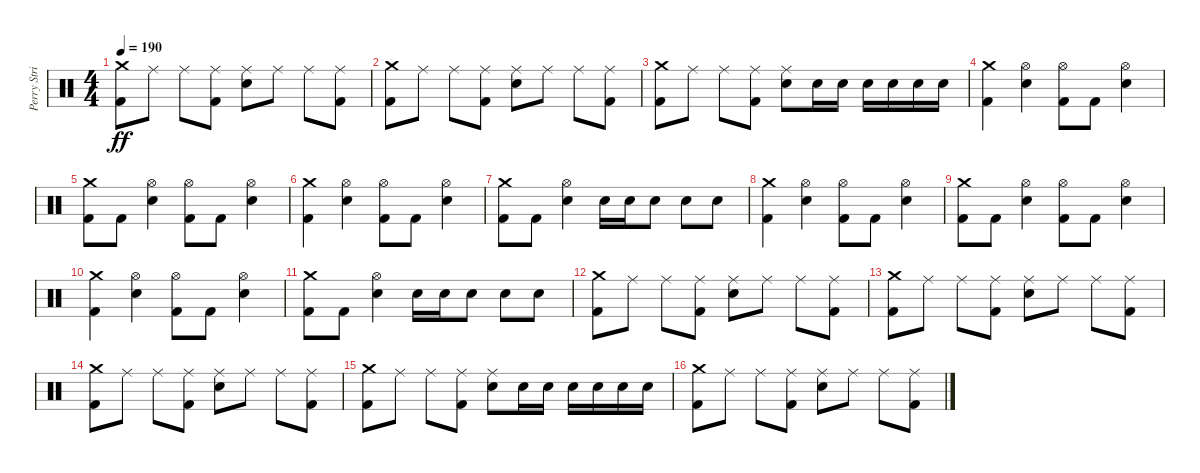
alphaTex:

\track ("Perry Strickland" "Perry Stri") {instrument percussion}
\staff {score}
\articulation defaults
\ts (4 4)
\tempo 190
\clef neutral
\ks c
("Crash medium (hit)" "Kick (hit) 2").8{dy ff} "Ride (middle)".8 "Ride (middle)".8 ("Ride (middle)" "Kick (hit) 2").8 ("Ride (middle)" "Snare (hit) 2").8 "Ride (middle)".8 "Ride (middle)".8 ("Ride (middle)" "Kick (hit) 2").8 |
("Crash medium (hit)" "Kick (hit) 2").8 "Ride (middle)".8 "Ride (middle)".8 ("Ride (middle)" "Kick (hit) 2").8 ("Ride (middle)" "Snare (hit) 2").8 "Ride (middle)".8 "Ride (middle)".8 ("Ride (middle)" "Kick (hit) 2").8 |
("Crash medium (hit)" "Kick (hit) 2").8 "Ride (middle)".8 "Ride (middle)".8 ("Ride (middle)" "Kick (hit) 2").8 ("Ride (middle)" "Snare (hit) 2").8 "Snare (hit) 2".16 "Snare (hit) 2".16 "Snare (hit) 2".16 "Snare (hit) 2".16 "Snare (hit) 2".16 "Snare (hit) 2".16 |
("Crash medium (hit)" "Kick (hit) 2").4 ("Hi-Hat (open)" "Snare (hit) 2").4 ("Hi-Hat (open)" "Kick (hit) 2").8 "Kick (hit) 2".8 ("Hi-Hat (open)" "Snare (hit) 2").4 |
("Crash medium (hit)" "Kick (hit) 2").8 "Kick (hit) 2".8 ("Hi-Hat (open)" "Snare (hit) 2").4 ("Hi-Hat (open)" "Kick (hit) 2").8 "Kick (hit) 2".8 ("Hi-Hat (open)" "Snare (hit) 2").4 |
("Crash medium (hit)" "Kick (hit) 2").4 ("Hi-Hat (open)" "Snare (hit) 2").4 ("Hi-Hat (open)" "Kick (hit) 2").8 "Kick (hit) 2".8 ("Hi-Hat (open)" "Snare (hit) 2").4 |
("Crash medium (hit)" "Kick (hit) 2").8 "Kick (hit) 2".8 ("Hi-Hat (open)" "Snare (hit) 2").4 "Snare (hit) 2".16 "Snare (hit) 2".16 "Snare (hit) 2".8 "Snare (hit) 2".8 "Snare (hit) 2".8 |
("Crash medium (hit)" "Kick (hit) 2").4 ("Hi-Hat (open)" "Snare (hit) 2").4 ("Hi-Hat (open)" "Kick (hit) 2").8 "Kick (hit) 2".8 ("Hi-Hat (open)" "Snare (hit) 2").4 |
("Crash medium (hit)" "Kick (hit) 2").8 "Kick (hit) 2".8 ("Hi-Hat (open)" "Snare (hit) 2").4 ("Hi-Hat (open)" "Kick (hit) 2").8 "Kick (hit) 2".8 ("Hi-Hat (open)" "Snare (hit) 2").4 |
("Crash medium (hit)" "Kick (hit) 2").4 ("Hi-Hat (open)" "Snare (hit) 2").4 ("Hi-Hat (open)" "Kick (hit) 2").8 "Kick (hit) 2".8 ("Hi-Hat (open)" "Snare (hit) 2").4 |
("Crash medium (hit)" "Kick (hit) 2").8 "Kick (hit) 2".8 ("Hi-Hat (open)" "Snare (hit) 2").4 "Snare (hit) 2".16 "Snare (hit) 2".16 "Snare (hit) 2".8 "Snare (hit) 2".8 "Snare (hit) 2".8 |
("Crash medium (hit)" "Kick (hit) 2").8 "Ride (middle)".8 "Ride (middle)".8 ("Ride (middle)" "Kick (hit) 2").8 ("Ride (middle)" "Snare (hit) 2").8 "Ride (middle)".8 "Ride (middle)".8 ("Ride (middle)" "Kick (hit) 2").8 |
("Crash medium (hit)" "Kick (hit) 2").8 "Ride (middle)".8 "Ride (middle)".8 ("Ride (middle)" "Kick (hit) 2").8 ("Ride (middle)" "Snare (hit) 2").8 "Ride (middle)".8 "Ride (middle)".8 ("Ride (middle)" "Kick (hit) 2").8 |
("Crash medium (hit)" "Kick (hit) 2").8 "Ride (middle)".8 "Ride (middle)".8 ("Ride (middle)" "Kick (hit) 2").8 ("Ride (middle)" "Snare (hit) 2").8 "Ride (middle)".8 "Ride (middle)".8 ("Ride (middle)" "Kick (hit) 2").8 |
("Crash medium (hit)" "Kick (hit) 2").8 "Ride (middle)".8 "Ride (middle)".8 ("Ride (middle)" "Kick (hit) 2").8 ("Ride (middle)" "Snare (hit) 2").8 "Snare (hit) 2".16 "Snare (hit) 2".16 "Snare (hit) 2".16 "Snare (hit) 2".16 "Snare (hit) 2".16 "Snare (hit) 2".16 |
("Crash medium (hit)" "Kick (hit) 2").8 "Ride (middle)".8 "Ride (middle)".8 ("Ride (middle)" "Kick (hit) 2").8 ("Ride (middle)" "Snare (hit) 2").8 "Ride (middle)".8 "Ride (middle)".8 ("Ride (middle)" "Kick (hit) 2").8
